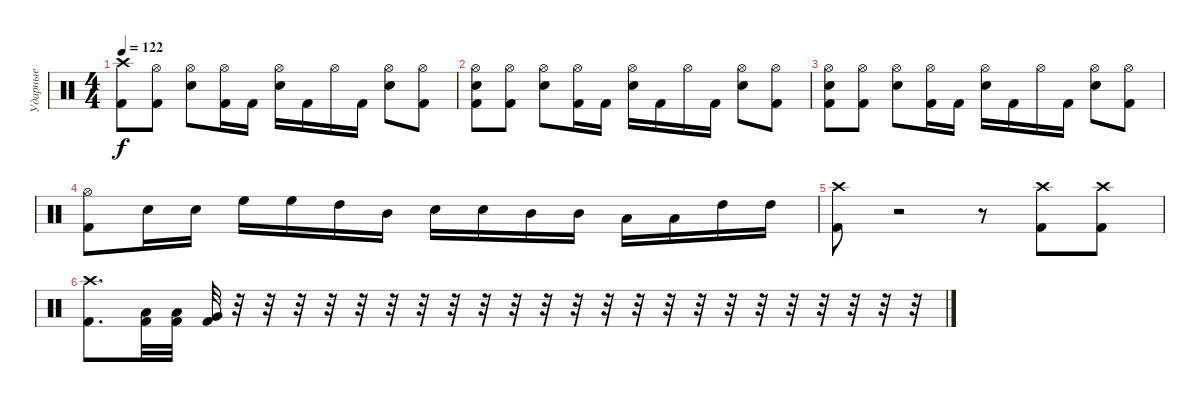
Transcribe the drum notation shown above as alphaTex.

\track ("Ударные" "Ударные") {instrument percussion}
\staff {score}
\articulation defaults
\ts (4 4)
\tempo 122
\clef neutral
\ks c
("Kick (hit) 2" "Crash high (hit)").8{dy f} ("Hi-Hat (open)" "Kick (hit) 2").8 ("Hi-Hat (open)" "Snare (hit) 2").8 ("Hi-Hat (open)" "Kick (hit) 2").16 "Kick (hit) 2".16 ("Hi-Hat (open)" "Snare (hit) 2").16 "Kick (hit) 2".16 "Hi-Hat (open)".16 "Kick (hit) 2".16 ("Hi-Hat (open)" "Snare (hit) 2").8 ("Hi-Hat (open)" "Kick (hit) 2").8 |
("Snare (hit) 2" "Hi-Hat (open)" "Kick (hit) 2").8 ("Hi-Hat (open)" "Kick (hit) 2").8 ("Hi-Hat (open)" "Snare (hit) 2").8 ("Hi-Hat (open)" "Kick (hit) 2").16 "Kick (hit) 2".16 ("Hi-Hat (open)" "Snare (hit) 2").16 "Kick (hit) 2".16 "Hi-Hat (open)".16 "Kick (hit) 2".16 ("Hi-Hat (open)" "Snare (hit) 2").8 ("Hi-Hat (open)" "Kick (hit) 2").8 |
("Snare (hit) 2" "Hi-Hat (open)" "Kick (hit) 2").8 ("Hi-Hat (open)" "Kick (hit) 2").8 ("Hi-Hat (open)" "Snare (hit) 2").8 ("Hi-Hat (open)" "Kick (hit) 2").16 "Kick (hit) 2".16 ("Hi-Hat (open)" "Snare (hit) 2").16 "Kick (hit) 2".16 "Hi-Hat (open)".16 "Kick (hit) 2".16 ("Hi-Hat (open)" "Snare (hit) 2").8 ("Hi-Hat (open)" "Kick (hit) 2").8 |
("Kick (hit) 2" "Hi-Hat (open)").8 "Snare (hit) 2".16 "Snare (hit) 2".16 "High Floor Tom (hit)".16 "High Floor Tom (hit)".16 "High Tom (hit)".16 "Mid Tom (hit)".16 "Snare (hit) 2".16 "Snare (hit) 2".16 "Mid Tom (hit)".16 "Mid Tom (hit)".16 "Low Tom (hit)".16 "Low Tom (hit)".16 "High Tom (hit)".16 "High Tom (hit)".16 |
("Kick (hit) 2" "Crash high (hit)").8 r.2 r.8 ("Kick (hit) 2" "Crash high (hit)").8 ("Kick (hit) 2" "Crash high (hit)").8 |
("Kick (hit) 2" "Crash high (hit)").8{d} ("Kick (hit) 2" "Low Tom (hit)").32 ("Kick (hit) 2" "Low Tom (hit)").32 ("Kick (hit) 2" "Very Low Tom (hit)").32 r.32 r.32 r.32 r.32 r.32 r.32 r.32 r.32 r.32 r.32 r.32 r.32 r.32 r.32 r.32 r.32 r.32 r.32 r.32 r.32 r.32 r.32 r.32
